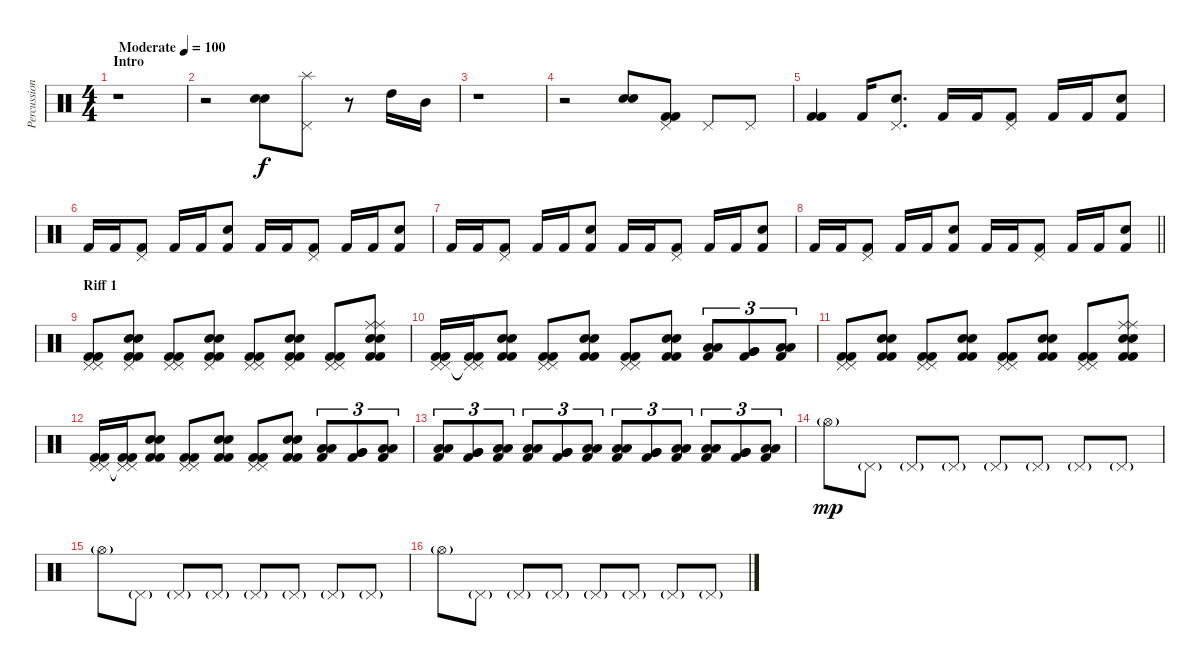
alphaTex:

\track ("Percussion" "Percussion") {instrument percussion}
\staff {score}
\articulation defaults
\ts (4 4)
\section ("" "Intro")
\tempo (100 "Moderate")
\clef neutral
\ks c
r.1{dy f} |
r.2 ("Snare (hit) 2" "Snare (hit) 2").8 ("Pedal Hi-Hat (hit)" "Splash (hit)").8 r.8 "High Tom (hit)".16 "Mid Tom (hit)".16 |
r.1 |
r.2 ("Snare (hit) 2" "Snare (hit) 2").8 ("Pedal Hi-Hat (hit)" "Kick (hit) 2" "Kick (hit) 2").8 "Pedal Hi-Hat (hit)".8 "Pedal Hi-Hat (hit)".8 |
("Kick (hit) 2" "Kick (hit) 2").4 "Kick (hit) 2".16 ("Pedal Hi-Hat (hit)" "Snare (hit) 2").8{d} "Kick (hit) 2".16 "Kick (hit) 2".16 ("Pedal Hi-Hat (hit)" "Kick (hit) 2").8 "Kick (hit) 2".16 "Kick (hit) 2".16 ("Snare (hit) 2" "Kick (hit) 2").8 |
"Kick (hit) 2".16 "Kick (hit) 2".16 ("Pedal Hi-Hat (hit)" "Kick (hit) 2").8 "Kick (hit) 2".16 "Kick (hit) 2".16 ("Snare (hit) 2" "Kick (hit) 2").8 "Kick (hit) 2".16 "Kick (hit) 2".16 ("Pedal Hi-Hat (hit)" "Kick (hit) 2").8 "Kick (hit) 2".16 "Kick (hit) 2".16 ("Snare (hit) 2" "Kick (hit) 2").8 |
"Kick (hit) 2".16 "Kick (hit) 2".16 ("Pedal Hi-Hat (hit)" "Kick (hit) 2").8 "Kick (hit) 2".16 "Kick (hit) 2".16 ("Snare (hit) 2" "Kick (hit) 2").8 "Kick (hit) 2".16 "Kick (hit) 2".16 ("Pedal Hi-Hat (hit)" "Kick (hit) 2").8 "Kick (hit) 2".16 "Kick (hit) 2".16 ("Snare (hit) 2" "Kick (hit) 2").8 |
\barLineRight lightlight "Kick (hit) 2".16 "Kick (hit) 2".16
("Pedal Hi-Hat (hit)" "Kick (hit) 2").8 "Kick (hit) 2".16 "Kick (hit) 2".16 ("Snare (hit) 2" "Kick (hit) 2").8 "Kick (hit) 2".16 "Kick (hit) 2".16 ("Pedal Hi-Hat (hit)" "Kick (hit) 2").8 "Kick (hit) 2".16 "Kick (hit) 2".16 ("Snare (hit) 2" "Kick (hit) 2").8 |
\section ("" "Riff 1")
("Pedal Hi-Hat (hit)" "Pedal Hi-Hat (hit)" "Kick (hit) 2" "Kick (hit) 2").8 ("Pedal Hi-Hat (hit)" "Snare (hit) 2" "Snare (hit) 2" "Kick (hit) 2" "Kick (hit) 2").8 ("Pedal Hi-Hat (hit)" "Pedal Hi-Hat (hit)" "Kick (hit) 2" "Kick (hit) 2").8 ("Pedal Hi-Hat (hit)" "Snare (hit) 2" "Snare (hit) 2" "Kick (hit) 2" "Kick (hit) 2").8 ("Pedal Hi-Hat (hit)" "Pedal Hi-Hat (hit)" "Kick (hit) 2" "Kick (hit) 2").8 ("Pedal Hi-Hat (hit)" "Snare (hit) 2" "Snare (hit) 2" "Kick (hit) 2" "Kick (hit) 2").8 ("Pedal Hi-Hat (hit)" "Pedal Hi-Hat (hit)" "Kick (hit) 2" "Kick (hit) 2").8 ("Ride (middle)" "Ride (middle)" "Snare (hit) 2" "Snare (hit) 2" "Kick (hit) 2" "Kick (hit) 2").8 |
("Pedal Hi-Hat (hit)" "Pedal Hi-Hat (hit)" "Kick (hit) 2" "Kick (hit) 2").16 ("Pedal Hi-Hat (hit)"{t} "Pedal Hi-Hat (hit)"{t} "Kick (hit) 2" "Kick (hit) 2").16 ("Snare (hit) 2" "Snare (hit) 2" "Kick (hit) 2" "Kick (hit) 2").8 ("Pedal Hi-Hat (hit)" "Pedal Hi-Hat (hit)" "Kick (hit) 2" "Kick (hit) 2").8 ("Snare (hit) 2" "Snare (hit) 2" "Kick (hit) 2" "Kick (hit) 2").8 ("Pedal Hi-Hat (hit)" "Pedal Hi-Hat (hit)" "Kick (hit) 2" "Kick (hit) 2").8 ("Snare (hit) 2" "Snare (hit) 2" "Kick (hit) 2" "Kick (hit) 2").8 ("Low Tom (hit)" "Low Tom (hit)" "Kick (hit) 2").8{tu (3 2)} ("Very Low Tom (hit)" "Very Low Tom (hit)" "Kick (hit) 2").8{tu (3 2)} ("Low Floor Tom (hit)" "Low Floor Tom (hit)" "Kick (hit) 2").8{tu (3 2)} |
("Pedal Hi-Hat (hit)" "Pedal Hi-Hat (hit)" "Kick (hit) 2" "Kick (hit) 2").8 ("Snare (hit) 2" "Snare (hit) 2" "Kick (hit) 2" "Kick (hit) 2").8 ("Pedal Hi-Hat (hit)" "Pedal Hi-Hat (hit)" "Kick (hit) 2" "Kick (hit) 2").8 ("Snare (hit) 2" "Snare (hit) 2" "Kick (hit) 2" "Kick (hit) 2").8 ("Pedal Hi-Hat (hit)" "Pedal Hi-Hat (hit)" "Kick (hit) 2" "Kick (hit) 2").8 ("Snare (hit) 2" "Snare (hit) 2" "Kick (hit) 2" "Kick (hit) 2").8 ("Pedal Hi-Hat (hit)" "Pedal Hi-Hat (hit)" "Kick (hit) 2" "Kick (hit) 2").8 ("Ride (middle)" "Ride (middle)" "Snare (hit) 2" "Snare (hit) 2" "Kick (hit) 2" "Kick (hit) 2").8 |
("Pedal Hi-Hat (hit)" "Pedal Hi-Hat (hit)" "Kick (hit) 2" "Kick (hit) 2").16 ("Pedal Hi-Hat (hit)"{t} "Pedal Hi-Hat (hit)"{t} "Kick (hit) 2" "Kick (hit) 2").16 ("Snare (hit) 2" "Snare (hit) 2" "Kick (hit) 2" "Kick (hit) 2").8 ("Pedal Hi-Hat (hit)" "Pedal Hi-Hat (hit)" "Kick (hit) 2" "Kick (hit) 2").8 ("Snare (hit) 2" "Snare (hit) 2" "Kick (hit) 2" "Kick (hit) 2").8 ("Pedal Hi-Hat (hit)" "Pedal Hi-Hat (hit)" "Kick (hit) 2" "Kick (hit) 2").8 ("Snare (hit) 2" "Snare (hit) 2" "Kick (hit) 2" "Kick (hit) 2").8 ("Low Tom (hit)" "Low Tom (hit)" "Kick (hit) 2").8{tu (3 2)} ("Very Low Tom (hit)" "Very Low Tom (hit)" "Kick (hit) 2").8{tu (3 2)} ("Low Floor Tom (hit)" "Low Floor Tom (hit)" "Kick (hit) 2").8{tu (3 2)} |
("Low Tom (hit)" "Low Tom (hit)" "Kick (hit) 2").8{tu (3 2)} ("Very Low Tom (hit)" "Very Low Tom (hit)" "Kick (hit) 2").8{tu (3 2)} ("Low Floor Tom (hit)" "Low Floor Tom (hit)" "Kick (hit) 2").8{tu (3 2)} ("Low Tom (hit)" "Low Tom (hit)" "Kick (hit) 2").8{tu (3 2)} ("Very Low Tom (hit)" "Very Low Tom (hit)" "Kick (hit) 2").8{tu (3 2)} ("Low Floor Tom (hit)" "Low Floor Tom (hit)" "Kick (hit) 2").8{tu (3 2)} ("Low Tom (hit)" "Low Tom (hit)" "Kick (hit) 2").8{tu (3 2)} ("Very Low Tom (hit)" "Very Low Tom (hit)" "Kick (hit) 2").8{tu (3 2)} ("Low Floor Tom (hit)" "Low Floor Tom (hit)" "Kick (hit) 2").8{tu (3 2)} ("Low Tom (hit)" "Low Tom (hit)" "Kick (hit) 2").8{tu (3 2)} ("Very Low Tom (hit)" "Very Low Tom (hit)" "Kick (hit) 2").8{tu (3 2)} ("Low Floor Tom (hit)" "Low Floor Tom (hit)" "Kick (hit) 2").8{tu (3 2)} |
"Hi-Hat (open)"{g}.8{dy mp} "Pedal Hi-Hat (hit)"{g}.8 "Pedal Hi-Hat (hit)"{g}.8 "Pedal Hi-Hat (hit)"{g}.8 "Pedal Hi-Hat (hit)"{g}.8 "Pedal Hi-Hat (hit)"{g}.8 "Pedal Hi-Hat (hit)"{g}.8 "Pedal Hi-Hat (hit)"{g}.8 |
"Hi-Hat (open)"{g}.8 "Pedal Hi-Hat (hit)"{g}.8 "Pedal Hi-Hat (hit)"{g}.8 "Pedal Hi-Hat (hit)"{g}.8 "Pedal Hi-Hat (hit)"{g}.8 "Pedal Hi-Hat (hit)"{g}.8 "Pedal Hi-Hat (hit)"{g}.8 "Pedal Hi-Hat (hit)"{g}.8 |
"Hi-Hat (open)"{g}.8 "Pedal Hi-Hat (hit)"{g}.8 "Pedal Hi-Hat (hit)"{g}.8 "Pedal Hi-Hat (hit)"{g}.8 "Pedal Hi-Hat (hit)"{g}.8 "Pedal Hi-Hat (hit)"{g}.8 "Pedal Hi-Hat (hit)"{g}.8 "Pedal Hi-Hat (hit)"{g}.8
